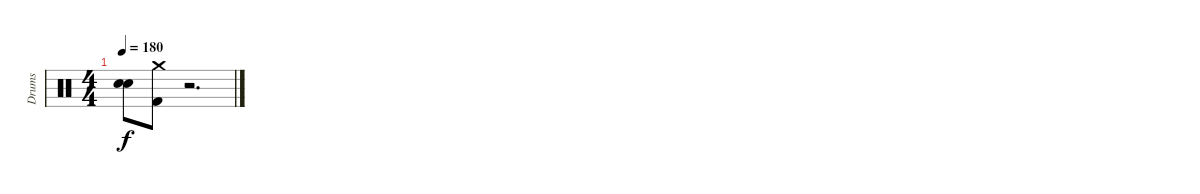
\track ("Drums" "Drums") {instrument percussion}
\staff {score}
\articulation defaults
\ts (4 4)
\tempo 180
\clef neutral
\ks c
("Snare (hit)"{t} "Snare (hit)"{t}).8{dy f} ("Crash medium (hit)" "Kick (hit) 2").8 r.2{d}
